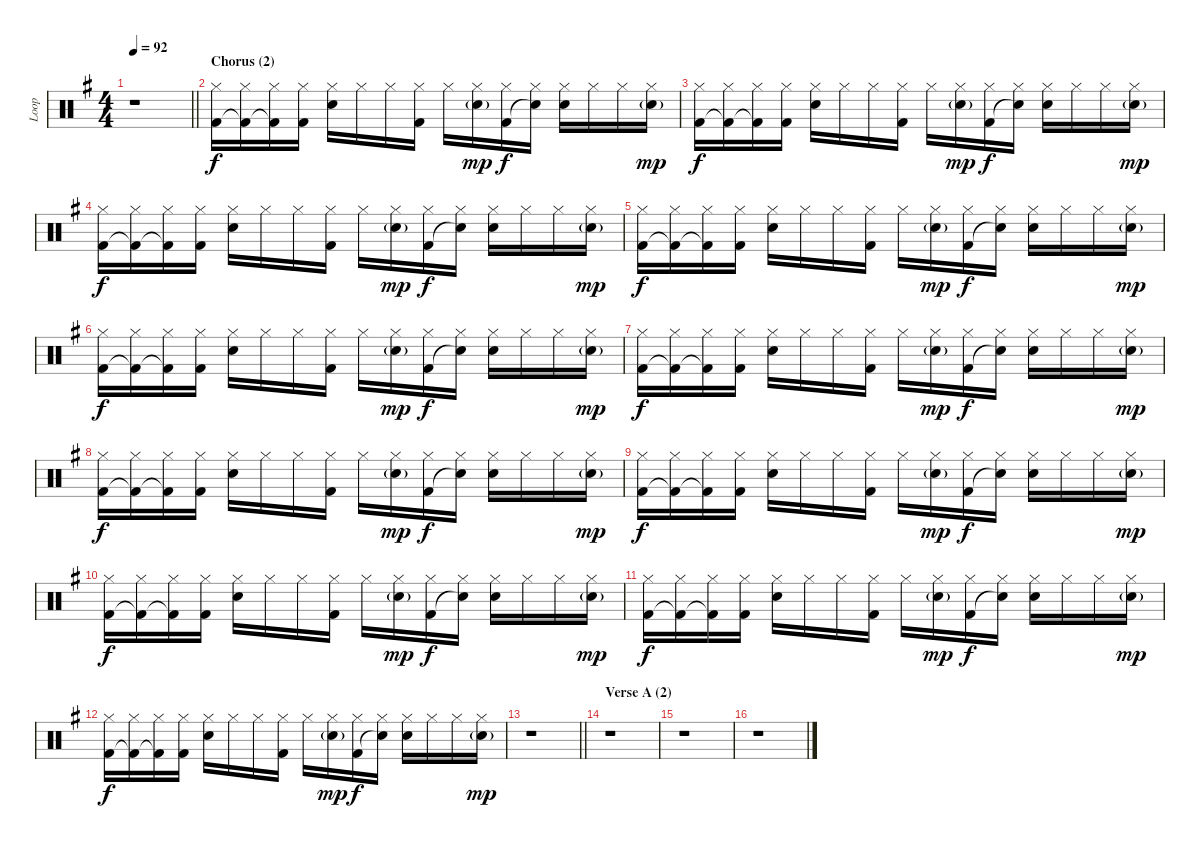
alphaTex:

\track ("Loop" "Loop") {instrument percussion}
\staff {score}
\articulation defaults
\ts (4 4)
\tempo 92
\clef neutral
\barLineRight lightlight
\ks g
r.1{dy mp} |
\section ("" "Chorus (2)")
("Hi-Hat (closed)" "Kick (hit) 2").16{dy f} ("Hi-Hat (closed)" "Kick (hit) 2"{t}).16 ("Hi-Hat (closed)" "Kick (hit) 2"{t}).16 ("Hi-Hat (closed)" "Kick (hit) 2").16 ("Hi-Hat (closed)" "Electric Snare (hit)").16 "Hi-Hat (closed)".16 "Hi-Hat (closed)".16 ("Hi-Hat (closed)" "Kick (hit) 2").16 "Hi-Hat (closed)".16 ("Hi-Hat (closed)" "Electric Snare (hit)"{g}).16{dy mp} ("Hi-Hat (closed)" "Kick (hit) 2").16{dy f} ("Hi-Hat (closed)" "Snare (hit)"{t}).16 ("Hi-Hat (closed)" "Electric Snare (hit)").16 "Hi-Hat (closed)".16 "Hi-Hat (closed)".16 ("Hi-Hat (closed)" "Electric Snare (hit)"{g}).16{dy mp} |
("Hi-Hat (closed)" "Kick (hit) 2").16{dy f} ("Hi-Hat (closed)" "Kick (hit) 2"{t}).16 ("Hi-Hat (closed)" "Kick (hit) 2"{t}).16 ("Hi-Hat (closed)" "Kick (hit) 2").16 ("Hi-Hat (closed)" "Electric Snare (hit)").16 "Hi-Hat (closed)".16 "Hi-Hat (closed)".16 ("Hi-Hat (closed)" "Kick (hit) 2").16 "Hi-Hat (closed)".16 ("Hi-Hat (closed)" "Electric Snare (hit)"{g}).16{dy mp} ("Hi-Hat (closed)" "Kick (hit) 2").16{dy f} ("Hi-Hat (closed)" "Snare (hit)"{t}).16 ("Hi-Hat (closed)" "Electric Snare (hit)").16 "Hi-Hat (closed)".16 "Hi-Hat (closed)".16 ("Hi-Hat (closed)" "Electric Snare (hit)"{g}).16{dy mp} |
("Hi-Hat (closed)" "Kick (hit) 2").16{dy f} ("Hi-Hat (closed)" "Kick (hit) 2"{t}).16 ("Hi-Hat (closed)" "Kick (hit) 2"{t}).16 ("Hi-Hat (closed)" "Kick (hit) 2").16 ("Hi-Hat (closed)" "Electric Snare (hit)").16 "Hi-Hat (closed)".16 "Hi-Hat (closed)".16 ("Hi-Hat (closed)" "Kick (hit) 2").16 "Hi-Hat (closed)".16 ("Hi-Hat (closed)" "Electric Snare (hit)"{g}).16{dy mp} ("Hi-Hat (closed)" "Kick (hit) 2").16{dy f} ("Hi-Hat (closed)" "Snare (hit)"{t}).16 ("Hi-Hat (closed)" "Electric Snare (hit)").16 "Hi-Hat (closed)".16 "Hi-Hat (closed)".16 ("Hi-Hat (closed)" "Electric Snare (hit)"{g}).16{dy mp} |
("Hi-Hat (closed)" "Kick (hit) 2").16{dy f} ("Hi-Hat (closed)" "Kick (hit) 2"{t}).16 ("Hi-Hat (closed)" "Kick (hit) 2"{t}).16 ("Hi-Hat (closed)" "Kick (hit) 2").16 ("Hi-Hat (closed)" "Electric Snare (hit)").16 "Hi-Hat (closed)".16 "Hi-Hat (closed)".16 ("Hi-Hat (closed)" "Kick (hit) 2").16 "Hi-Hat (closed)".16 ("Hi-Hat (closed)" "Electric Snare (hit)"{g}).16{dy mp} ("Hi-Hat (closed)" "Kick (hit) 2").16{dy f} ("Hi-Hat (closed)" "Snare (hit)"{t}).16 ("Hi-Hat (closed)" "Electric Snare (hit)").16 "Hi-Hat (closed)".16 "Hi-Hat (closed)".16 ("Hi-Hat (closed)" "Electric Snare (hit)"{g}).16{dy mp} |
("Hi-Hat (closed)" "Kick (hit) 2").16{dy f} ("Hi-Hat (closed)" "Kick (hit) 2"{t}).16 ("Hi-Hat (closed)" "Kick (hit) 2"{t}).16 ("Hi-Hat (closed)" "Kick (hit) 2").16 ("Hi-Hat (closed)" "Electric Snare (hit)").16 "Hi-Hat (closed)".16 "Hi-Hat (closed)".16 ("Hi-Hat (closed)" "Kick (hit) 2").16 "Hi-Hat (closed)".16 ("Hi-Hat (closed)" "Electric Snare (hit)"{g}).16{dy mp} ("Hi-Hat (closed)" "Kick (hit) 2").16{dy f} ("Hi-Hat (closed)" "Snare (hit)"{t}).16 ("Hi-Hat (closed)" "Electric Snare (hit)").16 "Hi-Hat (closed)".16 "Hi-Hat (closed)".16 ("Hi-Hat (closed)" "Electric Snare (hit)"{g}).16{dy mp} |
("Hi-Hat (closed)" "Kick (hit) 2").16{dy f} ("Hi-Hat (closed)" "Kick (hit) 2"{t}).16 ("Hi-Hat (closed)" "Kick (hit) 2"{t}).16 ("Hi-Hat (closed)" "Kick (hit) 2").16 ("Hi-Hat (closed)" "Electric Snare (hit)").16 "Hi-Hat (closed)".16 "Hi-Hat (closed)".16 ("Hi-Hat (closed)" "Kick (hit) 2").16 "Hi-Hat (closed)".16 ("Hi-Hat (closed)" "Electric Snare (hit)"{g}).16{dy mp} ("Hi-Hat (closed)" "Kick (hit) 2").16{dy f} ("Hi-Hat (closed)" "Snare (hit)"{t}).16 ("Hi-Hat (closed)" "Electric Snare (hit)").16 "Hi-Hat (closed)".16 "Hi-Hat (closed)".16 ("Hi-Hat (closed)" "Electric Snare (hit)"{g}).16{dy mp} |
("Hi-Hat (closed)" "Kick (hit) 2").16{dy f} ("Hi-Hat (closed)" "Kick (hit) 2"{t}).16 ("Hi-Hat (closed)" "Kick (hit) 2"{t}).16 ("Hi-Hat (closed)" "Kick (hit) 2").16 ("Hi-Hat (closed)" "Electric Snare (hit)").16 "Hi-Hat (closed)".16 "Hi-Hat (closed)".16 ("Hi-Hat (closed)" "Kick (hit) 2").16 "Hi-Hat (closed)".16 ("Hi-Hat (closed)" "Electric Snare (hit)"{g}).16{dy mp} ("Hi-Hat (closed)" "Kick (hit) 2").16{dy f} ("Hi-Hat (closed)" "Snare (hit)"{t}).16 ("Hi-Hat (closed)" "Electric Snare (hit)").16 "Hi-Hat (closed)".16 "Hi-Hat (closed)".16 ("Hi-Hat (closed)" "Electric Snare (hit)"{g}).16{dy mp} |
("Hi-Hat (closed)" "Kick (hit) 2").16{dy f} ("Hi-Hat (closed)" "Kick (hit) 2"{t}).16 ("Hi-Hat (closed)" "Kick (hit) 2"{t}).16 ("Hi-Hat (closed)" "Kick (hit) 2").16 ("Hi-Hat (closed)" "Electric Snare (hit)").16 "Hi-Hat (closed)".16 "Hi-Hat (closed)".16 ("Hi-Hat (closed)" "Kick (hit) 2").16 "Hi-Hat (closed)".16 ("Hi-Hat (closed)" "Electric Snare (hit)"{g}).16{dy mp} ("Hi-Hat (closed)" "Kick (hit) 2").16{dy f} ("Hi-Hat (closed)" "Snare (hit)"{t}).16 ("Hi-Hat (closed)" "Electric Snare (hit)").16 "Hi-Hat (closed)".16 "Hi-Hat (closed)".16 ("Hi-Hat (closed)" "Electric Snare (hit)"{g}).16{dy mp} |
("Hi-Hat (closed)" "Kick (hit) 2").16{dy f} ("Hi-Hat (closed)" "Kick (hit) 2"{t}).16 ("Hi-Hat (closed)" "Kick (hit) 2"{t}).16 ("Hi-Hat (closed)" "Kick (hit) 2").16 ("Hi-Hat (closed)" "Electric Snare (hit)").16 "Hi-Hat (closed)".16 "Hi-Hat (closed)".16 ("Hi-Hat (closed)" "Kick (hit) 2").16 "Hi-Hat (closed)".16 ("Hi-Hat (closed)" "Electric Snare (hit)"{g}).16{dy mp} ("Hi-Hat (closed)" "Kick (hit) 2").16{dy f} ("Hi-Hat (closed)" "Snare (hit)"{t}).16 ("Hi-Hat (closed)" "Electric Snare (hit)").16 "Hi-Hat (closed)".16 "Hi-Hat (closed)".16 ("Hi-Hat (closed)" "Electric Snare (hit)"{g}).16{dy mp} |
("Hi-Hat (closed)" "Kick (hit) 2").16{dy f} ("Hi-Hat (closed)" "Kick (hit) 2"{t}).16 ("Hi-Hat (closed)" "Kick (hit) 2"{t}).16 ("Hi-Hat (closed)" "Kick (hit) 2").16 ("Hi-Hat (closed)" "Electric Snare (hit)").16 "Hi-Hat (closed)".16 "Hi-Hat (closed)".16 ("Hi-Hat (closed)" "Kick (hit) 2").16 "Hi-Hat (closed)".16 ("Hi-Hat (closed)" "Electric Snare (hit)"{g}).16{dy mp} ("Hi-Hat (closed)" "Kick (hit) 2").16{dy f} ("Hi-Hat (closed)" "Snare (hit)"{t}).16 ("Hi-Hat (closed)" "Electric Snare (hit)").16 "Hi-Hat (closed)".16 "Hi-Hat (closed)".16 ("Hi-Hat (closed)" "Electric Snare (hit)"{g}).16{dy mp} |
("Hi-Hat (closed)" "Kick (hit) 2").16{dy f} ("Hi-Hat (closed)" "Kick (hit) 2"{t}).16 ("Hi-Hat (closed)" "Kick (hit) 2"{t}).16 ("Hi-Hat (closed)" "Kick (hit) 2").16 ("Hi-Hat (closed)" "Electric Snare (hit)").16 "Hi-Hat (closed)".16 "Hi-Hat (closed)".16 ("Hi-Hat (closed)" "Kick (hit) 2").16 "Hi-Hat (closed)".16 ("Hi-Hat (closed)" "Electric Snare (hit)"{g}).16{dy mp} ("Hi-Hat (closed)" "Kick (hit) 2").16{dy f} ("Hi-Hat (closed)" "Snare (hit)"{t}).16 ("Hi-Hat (closed)" "Electric Snare (hit)").16 "Hi-Hat (closed)".16 "Hi-Hat (closed)".16 ("Hi-Hat (closed)" "Electric Snare (hit)"{g}).16{dy mp} |
\barLineRight lightlight
r.1 |
\section ("" "Verse A (2)")
r.1 |
r.1 |
r.1
